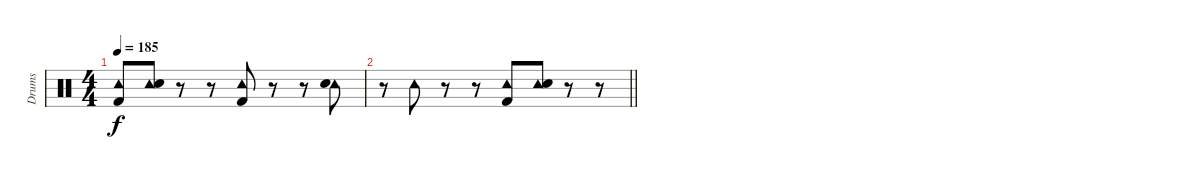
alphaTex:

\track ("Drums" "Drums") {instrument percussion}
\staff {score}
\articulation defaults
\ts (4 4)
\tempo 185
\clef neutral
\ks c
("Tambourine (hit)" "Kick (hit) 2").8{dy f} ("Tambourine (hit)" "Snare (hit) 2").8 r.8 r.8 ("Tambourine (hit)" "Kick (hit) 2").8 r.8 r.8 ("Tambourine (hit)" "Snare (hit) 2").8 |
\barLineRight lightlight
r.8 "Tambourine (hit)".8 r.8 r.8 ("Tambourine (hit)" "Kick (hit) 2").8 ("Tambourine (hit)" "Snare (hit) 2").8 r.8 r.8
